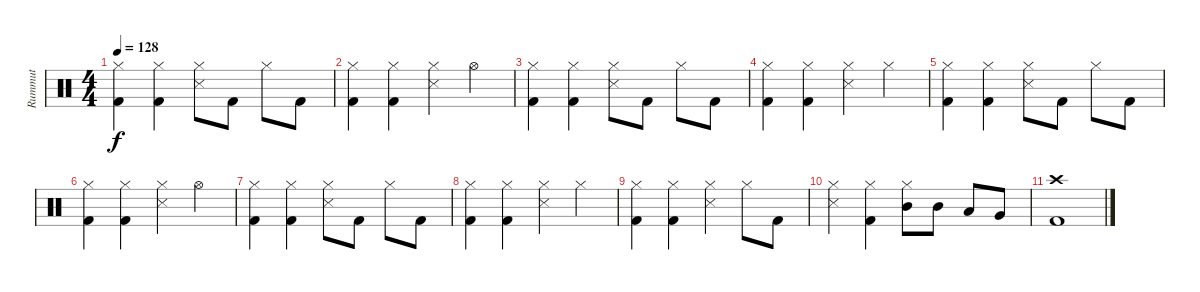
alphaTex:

\track ("Rummut" "Rummut") {instrument percussion}
\staff {score}
\articulation defaults
\ts (4 4)
\tempo 128
\clef neutral
\ks aminor
("Hi-Hat (closed)" "Kick (hit) 2").4{dy f} ("Hi-Hat (closed)" "Kick (hit) 2").4 ("Hi-Hat (closed)" "Snare (side stick) 3").8 "Kick (hit) 2".8 "Hi-Hat (closed)".8 "Kick (hit) 2".8 |
("Hi-Hat (closed)" "Kick (hit) 2").4 ("Hi-Hat (closed)" "Kick (hit) 2").4 ("Hi-Hat (closed)" "Snare (side stick) 3").4 "Hi-Hat (open)".4 |
("Hi-Hat (closed)" "Kick (hit) 2").4 ("Hi-Hat (closed)" "Kick (hit) 2").4 ("Hi-Hat (closed)" "Snare (side stick) 3").8 "Kick (hit) 2".8 "Hi-Hat (closed)".8 "Kick (hit) 2".8 |
("Hi-Hat (closed)" "Kick (hit) 2").4 ("Hi-Hat (closed)" "Kick (hit) 2").4 ("Hi-Hat (closed)" "Snare (side stick) 3").4 "Hi-Hat (closed)".4 |
("Hi-Hat (closed)" "Kick (hit) 2").4 ("Hi-Hat (closed)" "Kick (hit) 2").4 ("Hi-Hat (closed)" "Snare (side stick) 3").8 "Kick (hit) 2".8 "Hi-Hat (closed)".8 "Kick (hit) 2".8 |
("Hi-Hat (closed)" "Kick (hit) 2").4 ("Hi-Hat (closed)" "Kick (hit) 2").4 ("Hi-Hat (closed)" "Snare (side stick) 3").4 "Hi-Hat (open)".4 |
("Hi-Hat (closed)" "Kick (hit) 2").4 ("Hi-Hat (closed)" "Kick (hit) 2").4 ("Hi-Hat (closed)" "Snare (side stick) 3").8 "Kick (hit) 2".8 "Hi-Hat (closed)".8 "Kick (hit) 2".8 |
("Hi-Hat (closed)" "Kick (hit) 2").4 ("Hi-Hat (closed)" "Kick (hit) 2").4 ("Hi-Hat (closed)" "Snare (side stick) 3").4 "Hi-Hat (closed)".4 |
("Hi-Hat (closed)" "Kick (hit) 2").4 ("Hi-Hat (closed)" "Kick (hit) 2").4 ("Hi-Hat (closed)" "Snare (side stick) 3").4 "Hi-Hat (closed)".8 "Kick (hit) 2".8 |
("Hi-Hat (closed)" "Snare (side stick) 3").4 ("Hi-Hat (closed)" "Kick (hit) 2").4 ("Hi-Hat (closed)" "Mid Tom (hit)").8 "Mid Tom (hit)".8 "Low Tom (hit)".8 "Very Low Tom (hit)".8 |
("Crash high (hit)" "Kick (hit) 2").1
